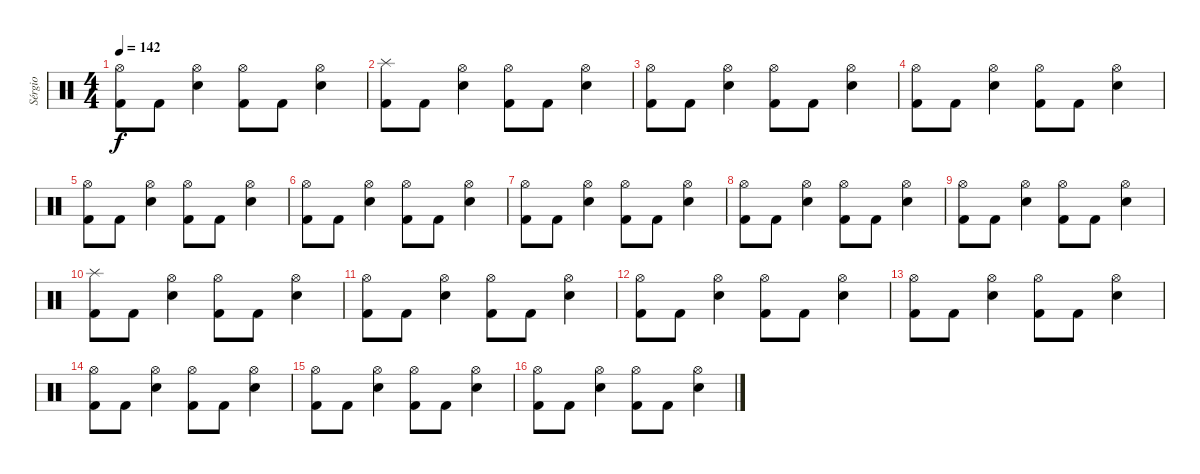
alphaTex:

\track ("Sérgio" "Sérgio") {instrument percussion}
\staff {score}
\articulation defaults
\ts (4 4)
\tempo 142
\clef neutral
\ks c
("Hi-Hat (open)" "Kick (hit) 2").8{dy f} "Kick (hit) 2".8 ("Hi-Hat (open)" "Snare (hit) 2").4 ("Hi-Hat (open)" "Kick (hit) 2").8 "Kick (hit) 2".8 ("Hi-Hat (open)" "Snare (hit) 2").4 |
("Splash (hit)" "Kick (hit) 2").8 "Kick (hit) 2".8 ("Hi-Hat (open)" "Snare (hit) 2").4 ("Hi-Hat (open)" "Kick (hit) 2").8 "Kick (hit) 2".8 ("Hi-Hat (open)" "Snare (hit) 2").4 |
("Hi-Hat (open)" "Kick (hit) 2").8 "Kick (hit) 2".8 ("Hi-Hat (open)" "Snare (hit) 2").4 ("Hi-Hat (open)" "Kick (hit) 2").8 "Kick (hit) 2".8 ("Hi-Hat (open)" "Snare (hit) 2").4 |
("Hi-Hat (open)" "Kick (hit) 2").8 "Kick (hit) 2".8 ("Hi-Hat (open)" "Snare (hit) 2").4 ("Hi-Hat (open)" "Kick (hit) 2").8 "Kick (hit) 2".8 ("Hi-Hat (open)" "Snare (hit) 2").4 |
("Hi-Hat (open)" "Kick (hit) 2").8 "Kick (hit) 2".8 ("Hi-Hat (open)" "Snare (hit) 2").4 ("Hi-Hat (open)" "Kick (hit) 2").8 "Kick (hit) 2".8 ("Hi-Hat (open)" "Snare (hit) 2").4 |
("Hi-Hat (open)" "Kick (hit) 2").8 "Kick (hit) 2".8 ("Hi-Hat (open)" "Snare (hit) 2").4 ("Hi-Hat (open)" "Kick (hit) 2").8 "Kick (hit) 2".8 ("Hi-Hat (open)" "Snare (hit) 2").4 |
("Hi-Hat (open)" "Kick (hit) 2").8 "Kick (hit) 2".8 ("Hi-Hat (open)" "Snare (hit) 2").4 ("Hi-Hat (open)" "Kick (hit) 2").8 "Kick (hit) 2".8 ("Hi-Hat (open)" "Snare (hit) 2").4 |
("Hi-Hat (open)" "Kick (hit) 2").8 "Kick (hit) 2".8 ("Hi-Hat (open)" "Snare (hit) 2").4 ("Hi-Hat (open)" "Kick (hit) 2").8 "Kick (hit) 2".8 ("Hi-Hat (open)" "Snare (hit) 2").4 |
("Hi-Hat (open)" "Kick (hit) 2").8 "Kick (hit) 2".8 ("Hi-Hat (open)" "Snare (hit) 2").4 ("Hi-Hat (open)" "Kick (hit) 2").8 "Kick (hit) 2".8 ("Hi-Hat (open)" "Snare (hit) 2").4 |
("Splash (hit)" "Kick (hit) 2").8 "Kick (hit) 2".8 ("Hi-Hat (open)" "Snare (hit) 2").4 ("Hi-Hat (open)" "Kick (hit) 2").8 "Kick (hit) 2".8 ("Hi-Hat (open)" "Snare (hit) 2").4 |
("Hi-Hat (open)" "Kick (hit) 2").8 "Kick (hit) 2".8 ("Hi-Hat (open)" "Snare (hit) 2").4 ("Hi-Hat (open)" "Kick (hit) 2").8 "Kick (hit) 2".8 ("Hi-Hat (open)" "Snare (hit) 2").4 |
("Hi-Hat (open)" "Kick (hit) 2").8 "Kick (hit) 2".8 ("Hi-Hat (open)" "Snare (hit) 2").4 ("Hi-Hat (open)" "Kick (hit) 2").8 "Kick (hit) 2".8 ("Hi-Hat (open)" "Snare (hit) 2").4 |
("Hi-Hat (open)" "Kick (hit) 2").8 "Kick (hit) 2".8 ("Hi-Hat (open)" "Snare (hit) 2").4 ("Hi-Hat (open)" "Kick (hit) 2").8 "Kick (hit) 2".8 ("Hi-Hat (open)" "Snare (hit) 2").4 |
("Hi-Hat (open)" "Kick (hit) 2").8 "Kick (hit) 2".8 ("Hi-Hat (open)" "Snare (hit) 2").4 ("Hi-Hat (open)" "Kick (hit) 2").8 "Kick (hit) 2".8 ("Hi-Hat (open)" "Snare (hit) 2").4 |
("Hi-Hat (open)" "Kick (hit) 2").8 "Kick (hit) 2".8 ("Hi-Hat (open)" "Snare (hit) 2").4 ("Hi-Hat (open)" "Kick (hit) 2").8 "Kick (hit) 2".8 ("Hi-Hat (open)" "Snare (hit) 2").4 |
("Hi-Hat (open)" "Kick (hit) 2").8 "Kick (hit) 2".8 ("Hi-Hat (open)" "Snare (hit) 2").4 ("Hi-Hat (open)" "Kick (hit) 2").8 "Kick (hit) 2".8 ("Hi-Hat (open)" "Snare (hit) 2").4
